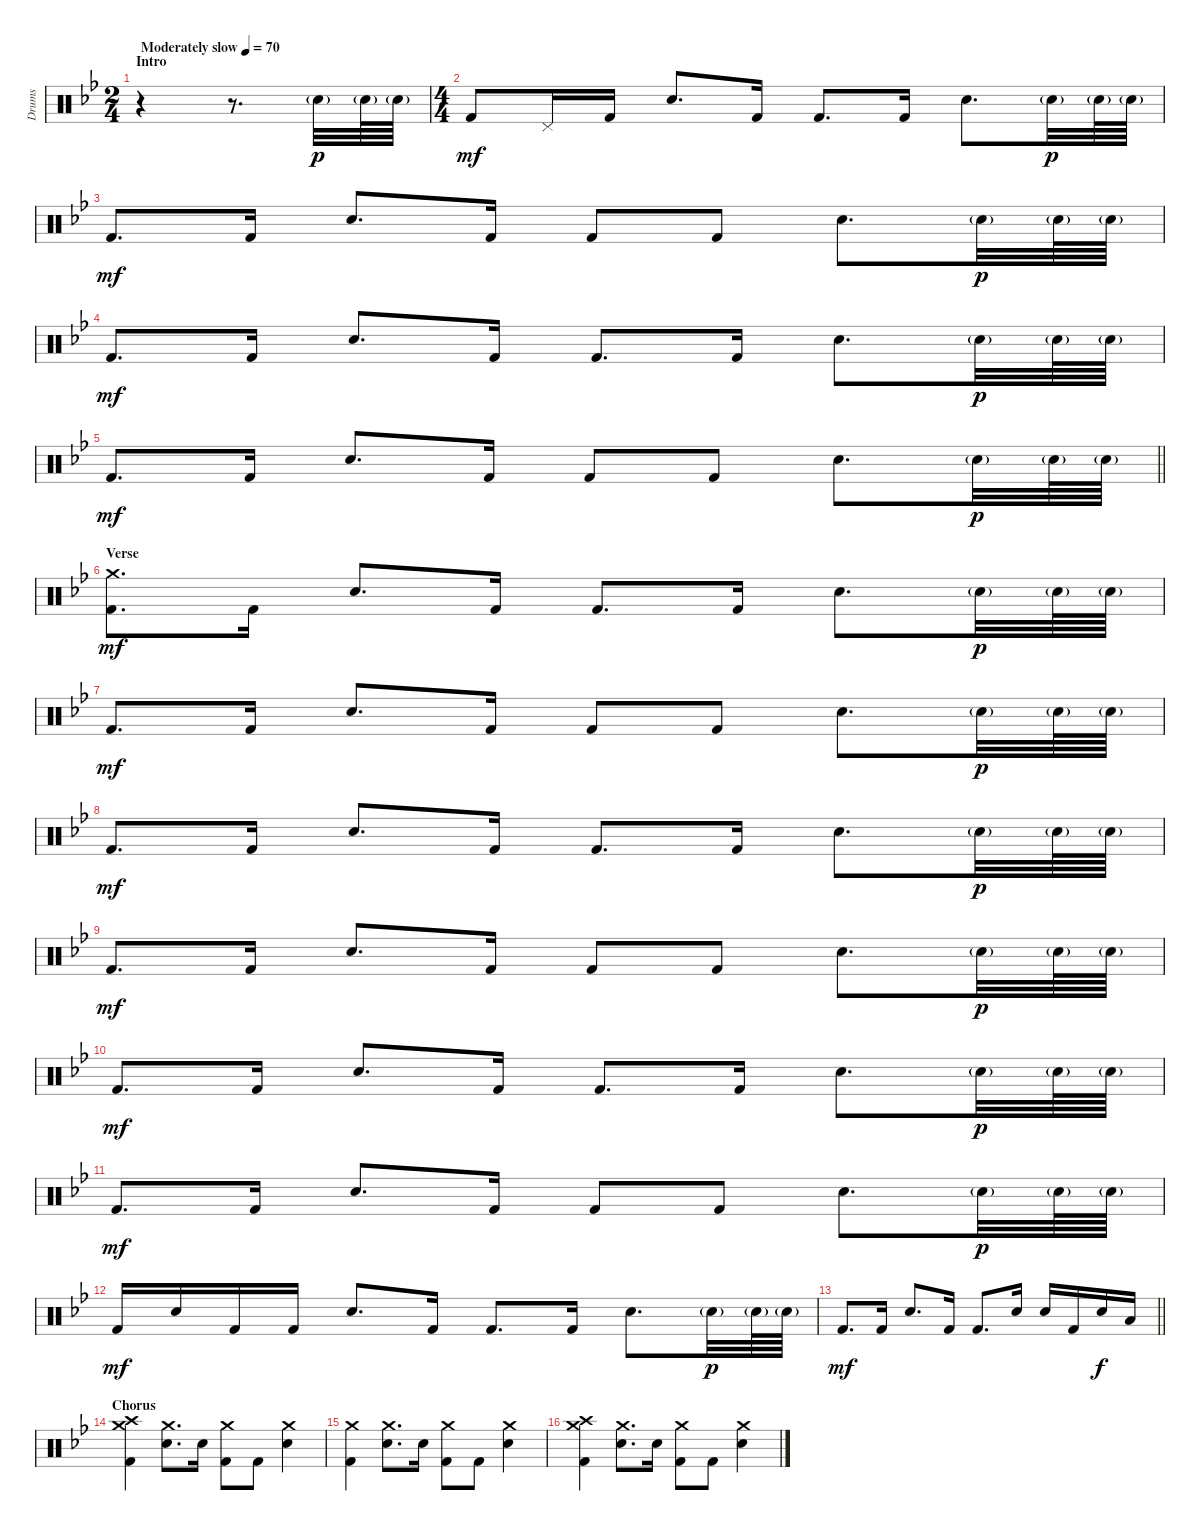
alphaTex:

\track ("Drums" "Drums") {instrument percussion}
\staff {score}
\articulation defaults
\ts (2 4)
\section ("" "Intro")
\tempo (70 "Moderately slow")
\clef neutral
\ks gminor
r.4{dy p} r.8{d} "Snare (hit) 2"{g}.32 "Snare (hit) 2"{g}.64 "Snare (hit) 2"{g}.64 |
\ts (4 4)
"Kick (hit) 2".8{dy mf} "Pedal Hi-Hat (hit)".16 "Kick (hit) 2".16 "Snare (hit) 2".8{d} "Kick (hit) 2".16 "Kick (hit) 2".8{d} "Kick (hit) 2".16 "Snare (hit) 2".8{d} "Snare (hit) 2"{g}.32{dy p} "Snare (hit) 2"{g}.64 "Snare (hit) 2"{g}.64 |
"Kick (hit) 2".8{d dy mf} "Kick (hit) 2".16 "Snare (hit) 2".8{d} "Kick (hit) 2".16 "Kick (hit) 2".8 "Kick (hit) 2".8 "Snare (hit) 2".8{d} "Snare (hit) 2"{g}.32{dy p} "Snare (hit) 2"{g}.64 "Snare (hit) 2"{g}.64 |
"Kick (hit) 2".8{d dy mf} "Kick (hit) 2".16 "Snare (hit) 2".8{d} "Kick (hit) 2".16 "Kick (hit) 2".8{d} "Kick (hit) 2".16 "Snare (hit) 2".8{d} "Snare (hit) 2"{g}.32{dy p} "Snare (hit) 2"{g}.64 "Snare (hit) 2"{g}.64 |
\barLineRight lightlight "Kick (hit) 2".8{d dy mf} "Kick (hit) 2".16 "Snare (hit) 2".8{d} "Kick (hit) 2".16 "Kick (hit) 2".8 "Kick (hit) 2".8 "Snare (hit) 2".8{d} "Snare (hit) 2"{g}.32{dy p} "Snare (hit) 2"{g}.64 "Snare (hit) 2"{g}.64
|
\section ("" "Verse")
("Crash medium (hit)" "Kick (hit) 2").8{d dy mf} "Kick (hit) 2".16 "Snare (hit) 2".8{d} "Kick (hit) 2".16 "Kick (hit) 2".8{d} "Kick (hit) 2".16 "Snare (hit) 2".8{d} "Snare (hit) 2"{g}.32{dy p} "Snare (hit) 2"{g}.64 "Snare (hit) 2"{g}.64 |
"Kick (hit) 2".8{d dy mf} "Kick (hit) 2".16 "Snare (hit) 2".8{d} "Kick (hit) 2".16 "Kick (hit) 2".8 "Kick (hit) 2".8 "Snare (hit) 2".8{d} "Snare (hit) 2"{g}.32{dy p} "Snare (hit) 2"{g}.64 "Snare (hit) 2"{g}.64 |
"Kick (hit) 2".8{d dy mf} "Kick (hit) 2".16 "Snare (hit) 2".8{d} "Kick (hit) 2".16 "Kick (hit) 2".8{d} "Kick (hit) 2".16 "Snare (hit) 2".8{d} "Snare (hit) 2"{g}.32{dy p} "Snare (hit) 2"{g}.64 "Snare (hit) 2"{g}.64 |
"Kick (hit) 2".8{d dy mf} "Kick (hit) 2".16 "Snare (hit) 2".8{d} "Kick (hit) 2".16 "Kick (hit) 2".8 "Kick (hit) 2".8 "Snare (hit) 2".8{d} "Snare (hit) 2"{g}.32{dy p} "Snare (hit) 2"{g}.64 "Snare (hit) 2"{g}.64 |
"Kick (hit) 2".8{d dy mf} "Kick (hit) 2".16 "Snare (hit) 2".8{d} "Kick (hit) 2".16 "Kick (hit) 2".8{d} "Kick (hit) 2".16 "Snare (hit) 2".8{d} "Snare (hit) 2"{g}.32{dy p} "Snare (hit) 2"{g}.64 "Snare (hit) 2"{g}.64 |
"Kick (hit) 2".8{d dy mf} "Kick (hit) 2".16 "Snare (hit) 2".8{d} "Kick (hit) 2".16 "Kick (hit) 2".8 "Kick (hit) 2".8 "Snare (hit) 2".8{d} "Snare (hit) 2"{g}.32{dy p} "Snare (hit) 2"{g}.64 "Snare (hit) 2"{g}.64 |
"Kick (hit) 2".16{dy mf} "Snare (hit) 2".16 "Kick (hit) 2".16 "Kick (hit) 2".16 "Snare (hit) 2".8{d} "Kick (hit) 2".16 "Kick (hit) 2".8{d} "Kick (hit) 2".16 "Snare (hit) 2".8{d} "Snare (hit) 2"{g}.32{dy p} "Snare (hit) 2"{g}.64 "Snare (hit) 2"{g}.64 |
\barLineRight lightlight "Kick (hit) 2".8{d dy mf} "Kick (hit) 2".16 "Snare (hit) 2".8{d} "Kick (hit) 2".16 "Kick (hit) 2".8{d} "Snare (hit) 2".16 "Snare (hit) 2".16 "Kick (hit) 2".16 "Snare (hit) 2".16{dy f} "Low Floor Tom (hit)".16
|
\section ("" "Chorus")
("Crash medium (hit)" "Crash high (hit)" "Kick (hit) 2").4 ("Crash medium (hit)" "Snare (hit) 2").8{d} "Snare (hit) 2".16 ("Crash medium (hit)" "Kick (hit) 2").8 "Kick (hit) 2".8 ("Crash medium (hit)" "Snare (hit) 2").4 |
("Crash medium (hit)" "Kick (hit) 2").4 ("Crash medium (hit)" "Snare (hit) 2").8{d} "Snare (hit) 2".16 ("Crash medium (hit)" "Kick (hit) 2").8 "Kick (hit) 2".8 ("Crash medium (hit)" "Snare (hit) 2").4 |
("Crash medium (hit)" "Crash high (hit)" "Kick (hit) 2").4 ("Crash medium (hit)" "Snare (hit) 2").8{d} "Snare (hit) 2".16 ("Crash medium (hit)" "Kick (hit) 2").8 "Kick (hit) 2".8 ("Crash medium (hit)" "Snare (hit) 2").4
